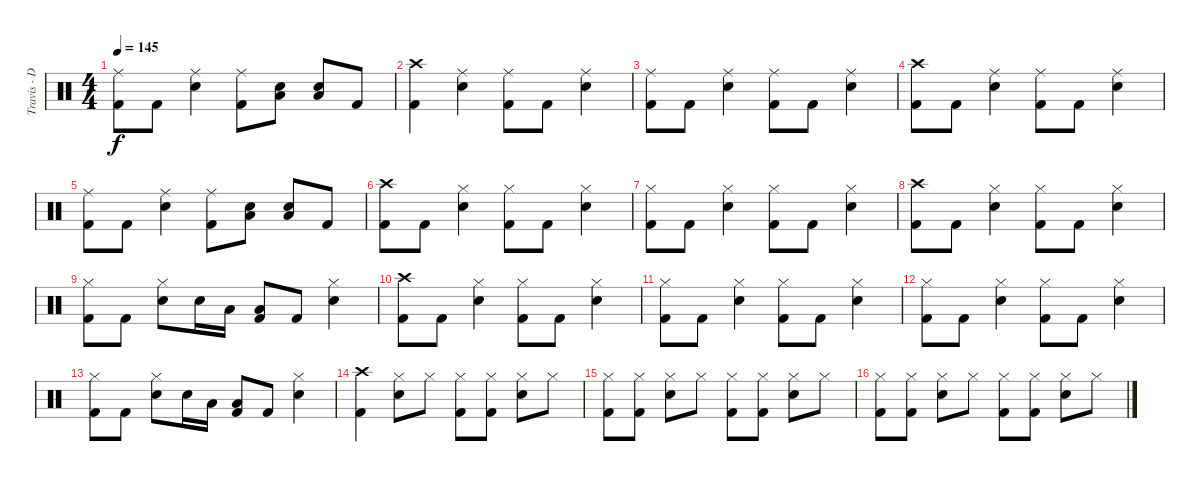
\track ("Travis - Drums" "Travis - D") {instrument percussion}
\staff {score}
\articulation defaults
\ts (4 4)
\tempo 145
\clef neutral
\ks c
("Ride (middle)" "Kick (hit) 2").8{dy f} "Kick (hit) 2".8 ("Ride (middle)" "Snare (hit) 2").4 ("Ride (middle)" "Kick (hit) 2").8 ("Snare (hit) 2" "Low Floor Tom (hit)").8 ("Snare (hit) 2" "Low Floor Tom (hit)").8 "Kick (hit) 2".8 |
("Crash high (hit)" "Kick (hit) 2").4 ("Ride (middle)" "Snare (hit) 2").4 ("Ride (middle)" "Kick (hit) 2").8 "Kick (hit) 2".8 ("Ride (middle)" "Snare (hit) 2").4 |
("Ride (middle)" "Kick (hit) 2").8 "Kick (hit) 2".8 ("Ride (middle)" "Snare (hit) 2").4 ("Ride (middle)" "Kick (hit) 2").8 "Kick (hit) 2".8 ("Ride (middle)" "Snare (hit) 2").4 |
("Crash high (hit)" "Kick (hit) 2").8 "Kick (hit) 2".8 ("Ride (middle)" "Snare (hit) 2").4 ("Ride (middle)" "Kick (hit) 2").8 "Kick (hit) 2".8 ("Ride (middle)" "Snare (hit) 2").4 |
("Ride (middle)" "Kick (hit) 2").8 "Kick (hit) 2".8 ("Ride (middle)" "Snare (hit) 2").4 ("Ride (middle)" "Kick (hit) 2").8 ("Snare (hit) 2" "Low Floor Tom (hit)").8 ("Snare (hit) 2" "Low Floor Tom (hit)").8 "Kick (hit) 2".8 |
("Crash high (hit)" "Kick (hit) 2").8 "Kick (hit) 2".8 ("Hi-Hat (closed)" "Snare (hit) 2").4 ("Hi-Hat (closed)" "Kick (hit) 2").8 "Kick (hit) 2".8 ("Hi-Hat (closed)" "Snare (hit) 2").4 |
("Hi-Hat (closed)" "Kick (hit) 2").8 "Kick (hit) 2".8 ("Hi-Hat (closed)" "Snare (hit) 2").4 ("Hi-Hat (closed)" "Kick (hit) 2").8 "Kick (hit) 2".8 ("Hi-Hat (closed)" "Snare (hit) 2").4 |
("Crash high (hit)" "Kick (hit) 2").8 "Kick (hit) 2".8 ("Hi-Hat (closed)" "Snare (hit) 2").4 ("Hi-Hat (closed)" "Kick (hit) 2").8 "Kick (hit) 2".8 ("Hi-Hat (closed)" "Snare (hit) 2").4 |
("Hi-Hat (closed)" "Kick (hit) 2").8 "Kick (hit) 2".8 ("Hi-Hat (closed)" "Snare (hit) 2").8 "Snare (hit) 2".16 "Low Tom (hit)".16 ("Low Floor Tom (hit)" "Kick (hit) 2").8 "Kick (hit) 2".8 ("Hi-Hat (closed)" "Snare (hit) 2").4 |
("Crash high (hit)" "Kick (hit) 2").8 "Kick (hit) 2".8 ("Hi-Hat (closed)" "Snare (hit) 2").4 ("Hi-Hat (closed)" "Kick (hit) 2").8 "Kick (hit) 2".8 ("Hi-Hat (closed)" "Snare (hit) 2").4 |
("Hi-Hat (closed)" "Kick (hit) 2").8 "Kick (hit) 2".8 ("Hi-Hat (closed)" "Snare (hit) 2").4 ("Hi-Hat (closed)" "Kick (hit) 2").8 "Kick (hit) 2".8 ("Hi-Hat (closed)" "Snare (hit) 2").4 |
("Hi-Hat (closed)" "Kick (hit) 2").8 "Kick (hit) 2".8 ("Hi-Hat (closed)" "Snare (hit) 2").4 ("Hi-Hat (closed)" "Kick (hit) 2").8 "Kick (hit) 2".8 ("Hi-Hat (closed)" "Snare (hit) 2").4 |
("Hi-Hat (closed)" "Kick (hit) 2").8 "Kick (hit) 2".8 ("Hi-Hat (closed)" "Snare (hit) 2").8 "Snare (hit) 2".16 "Low Tom (hit)".16 ("Low Floor Tom (hit)" "Kick (hit) 2").8 "Kick (hit) 2".8 ("Hi-Hat (closed)" "Snare (hit) 2").4 |
("Crash high (hit)" "Kick (hit) 2").4 ("Hi-Hat (closed)" "Snare (hit) 2").8 "Hi-Hat (closed)".8 ("Hi-Hat (closed)" "Kick (hit) 2").8 ("Hi-Hat (closed)" "Kick (hit) 2").8 ("Hi-Hat (closed)" "Snare (hit) 2").8 "Hi-Hat (closed)".8 |
("Hi-Hat (closed)" "Kick (hit) 2").8 ("Hi-Hat (closed)" "Kick (hit) 2").8 ("Hi-Hat (closed)" "Snare (hit) 2").8 "Hi-Hat (closed)".8 ("Hi-Hat (closed)" "Kick (hit) 2").8 ("Hi-Hat (closed)" "Kick (hit) 2").8 ("Hi-Hat (closed)" "Snare (hit) 2").8 "Hi-Hat (closed)".8 |
("Hi-Hat (closed)" "Kick (hit) 2").8 ("Hi-Hat (closed)" "Kick (hit) 2").8 ("Hi-Hat (closed)" "Snare (hit) 2").8 "Hi-Hat (closed)".8 ("Hi-Hat (closed)" "Kick (hit) 2").8 ("Hi-Hat (closed)" "Kick (hit) 2").8 ("Hi-Hat (closed)" "Snare (hit) 2").8 "Hi-Hat (closed)".8
